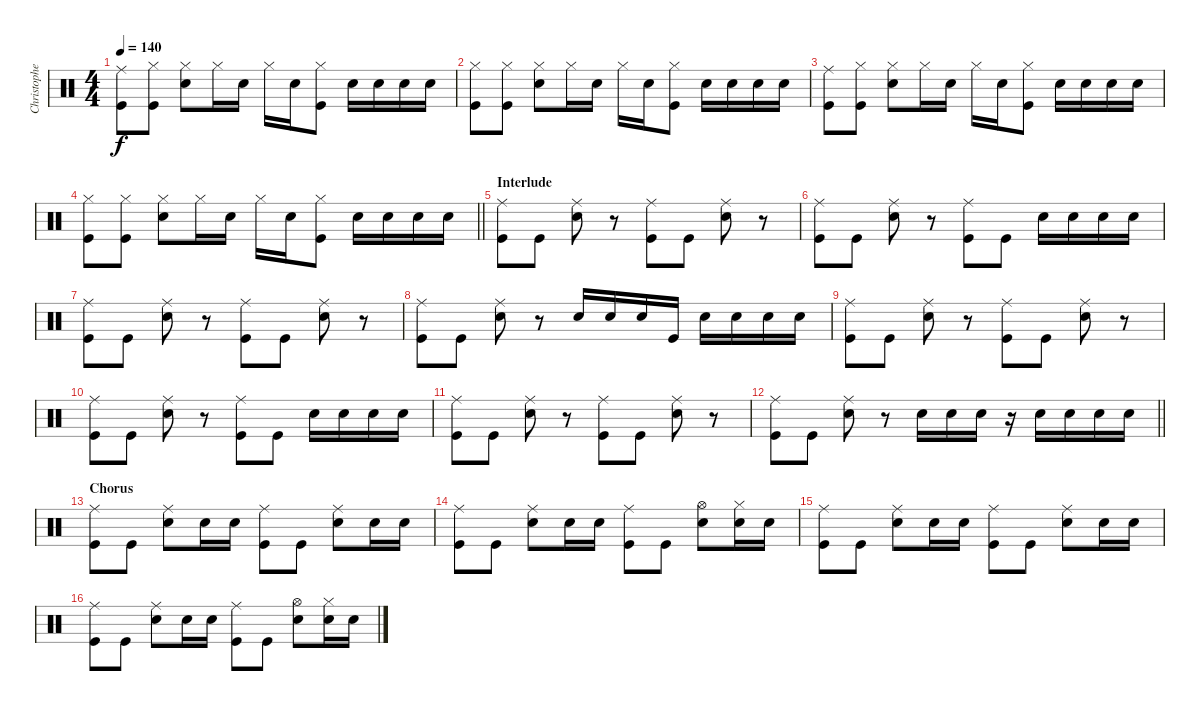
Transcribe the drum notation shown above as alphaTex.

\track ("Christopher - Drums" "Christophe") {instrument percussion}
\staff {score}
\articulation defaults
\ts (4 4)
\tempo 140
\clef neutral
\ks c
("Ride (middle)" "Kick (hit)").8{dy f} ("Hi-Hat (closed)" "Kick (hit)").8 ("Hi-Hat (closed)" "Snare (hit) 2").8 "Hi-Hat (closed)".16 "Snare (hit) 2".16 "Hi-Hat (closed)".16 "Snare (hit) 2".16 ("Hi-Hat (closed)" "Kick (hit)").8 "Snare (hit) 2".16 "Snare (hit) 2".16 "Snare (hit) 2".16 "Snare (hit) 2".16 |
("Hi-Hat (closed)" "Kick (hit)").8 ("Hi-Hat (closed)" "Kick (hit)").8 ("Hi-Hat (closed)" "Snare (hit) 2").8 "Hi-Hat (closed)".16 "Snare (hit) 2".16 "Hi-Hat (closed)".16 "Snare (hit) 2".16 ("Hi-Hat (closed)" "Kick (hit)").8 "Snare (hit) 2".16 "Snare (hit) 2".16 "Snare (hit) 2".16 "Snare (hit) 2".16 |
("Ride (middle)" "Kick (hit)").8 ("Hi-Hat (closed)" "Kick (hit)").8 ("Hi-Hat (closed)" "Snare (hit) 2").8 "Hi-Hat (closed)".16 "Snare (hit) 2".16 "Hi-Hat (closed)".16 "Snare (hit) 2".16 ("Hi-Hat (closed)" "Kick (hit)").8 "Snare (hit) 2".16 "Snare (hit) 2".16 "Snare (hit) 2".16 "Snare (hit) 2".16 |
\barLineRight lightlight
("Hi-Hat (closed)" "Kick (hit)").8 ("Hi-Hat (closed)" "Kick (hit)").8 ("Hi-Hat (closed)" "Snare (hit) 2").8 "Hi-Hat (closed)".16 "Snare (hit) 2".16 "Hi-Hat (closed)".16 "Snare (hit) 2".16 ("Hi-Hat (closed)" "Kick (hit)").8 "Snare (hit) 2".16 "Snare (hit) 2".16 "Snare (hit) 2".16 "Snare (hit) 2".16 |
\section ("" "Interlude")
("Ride (middle)" "Kick (hit)").8 "Kick (hit)".8 ("Ride (middle)" "Snare (hit) 2").8 r.8 ("Ride (middle)" "Kick (hit)").8 "Kick (hit)".8 ("Ride (middle)" "Snare (hit) 2").8 r.8 |
("Ride (middle)" "Kick (hit)").8 "Kick (hit)".8 ("Ride (middle)" "Snare (hit) 2").8 r.8 ("Ride (middle)" "Kick (hit)").8 "Kick (hit)".8 "Snare (hit) 2".16 "Snare (hit) 2".16 "Snare (hit) 2".16 "Snare (hit) 2".16 |
("Ride (middle)" "Kick (hit)").8 "Kick (hit)".8 ("Ride (middle)" "Snare (hit) 2").8 r.8 ("Ride (middle)" "Kick (hit)").8 "Kick (hit)".8 ("Ride (middle)" "Snare (hit) 2").8 r.8 |
("Ride (middle)" "Kick (hit)").8 "Kick (hit)".8 ("Ride (middle)" "Snare (hit) 2").8 r.8 "Snare (hit) 2".16 "Snare (hit) 2".16 "Snare (hit) 2".16 "Kick (hit)".16 "Snare (hit) 2".16 "Snare (hit) 2".16 "Snare (hit) 2".16 "Snare (hit) 2".16 |
("Ride (middle)" "Kick (hit)").8 "Kick (hit)".8 ("Ride (middle)" "Snare (hit) 2").8 r.8 ("Ride (middle)" "Kick (hit)").8 "Kick (hit)".8 ("Ride (middle)" "Snare (hit) 2").8 r.8 |
("Ride (middle)" "Kick (hit)").8 "Kick (hit)".8 ("Ride (middle)" "Snare (hit) 2").8 r.8 ("Ride (middle)" "Kick (hit)").8 "Kick (hit)".8 "Snare (hit) 2".16 "Snare (hit) 2".16 "Snare (hit) 2".16 "Snare (hit) 2".16 |
("Ride (middle)" "Kick (hit)").8 "Kick (hit)".8 ("Ride (middle)" "Snare (hit) 2").8 r.8 ("Ride (middle)" "Kick (hit)").8 "Kick (hit)".8 ("Ride (middle)" "Snare (hit) 2").8 r.8 |
\barLineRight lightlight
("Ride (middle)" "Kick (hit)").8 "Kick (hit)".8 ("Ride (middle)" "Snare (hit) 2").8 r.8 "Snare (hit) 2".16 "Snare (hit) 2".16 "Snare (hit) 2".16 r.16 "Snare (hit) 2".16 "Snare (hit) 2".16 "Snare (hit) 2".16 "Snare (hit) 2".16 |
\section ("" "Chorus")
("Ride (middle)" "Kick (hit)").8 "Kick (hit)".8 ("Ride (middle)" "Snare (hit) 2").8 "Snare (hit) 2".16 "Snare (hit) 2".16 ("Ride (middle)" "Kick (hit)").8 "Kick (hit)".8 ("Ride (middle)" "Snare (hit) 2").8 "Snare (hit) 2".16 "Snare (hit) 2".16 |
("Ride (middle)" "Kick (hit)").8 "Kick (hit)".8 ("Ride (middle)" "Snare (hit) 2").8 "Snare (hit) 2".16 "Snare (hit) 2".16 ("Ride (middle)" "Kick (hit)").8 "Kick (hit)".8 ("Hi-Hat (open)" "Snare (hit) 2").8 ("Hi-Hat (closed)" "Snare (hit) 2").16 "Snare (hit) 2".16 |
("Ride (middle)" "Kick (hit)").8 "Kick (hit)".8 ("Ride (middle)" "Snare (hit) 2").8 "Snare (hit) 2".16 "Snare (hit) 2".16 ("Ride (middle)" "Kick (hit)").8 "Kick (hit)".8 ("Ride (middle)" "Snare (hit) 2").8 "Snare (hit) 2".16 "Snare (hit) 2".16 |
("Ride (middle)" "Kick (hit)").8 "Kick (hit)".8 ("Ride (middle)" "Snare (hit) 2").8 "Snare (hit) 2".16 "Snare (hit) 2".16 ("Ride (middle)" "Kick (hit)").8 "Kick (hit)".8 ("Hi-Hat (open)" "Snare (hit) 2").8 ("Hi-Hat (closed)" "Snare (hit) 2").16 "Snare (hit) 2".16
